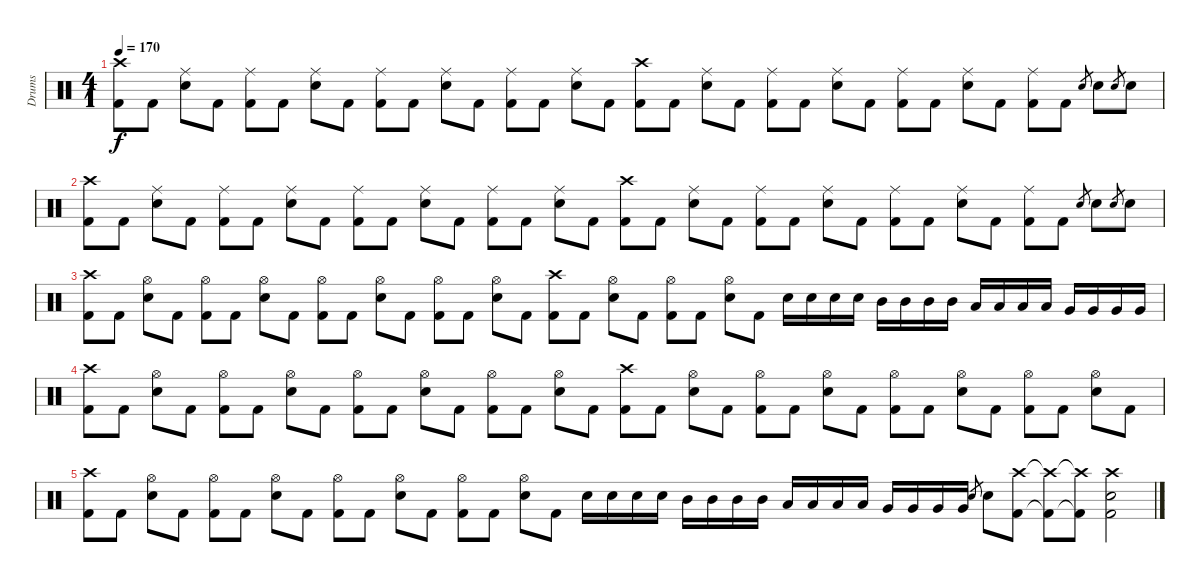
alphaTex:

\track ("Drums" "Drums") {instrument percussion}
\staff {score}
\articulation defaults
\ts (4 1)
\tempo 170
\clef neutral
\ks c
("Crash high (hit)" "Kick (hit) 2").8{dy f} "Kick (hit) 2".8 ("Ride (middle)" "Electric Snare (hit)").8 "Kick (hit) 2".8 ("Ride (middle)" "Kick (hit) 2").8 "Kick (hit) 2".8 ("Ride (middle)" "Electric Snare (hit)").8 "Kick (hit) 2".8 ("Ride (middle)" "Kick (hit) 2").8 "Kick (hit) 2".8 ("Ride (middle)" "Electric Snare (hit)").8 "Kick (hit) 2".8 ("Ride (middle)" "Kick (hit) 2").8 "Kick (hit) 2".8 ("Ride (middle)" "Electric Snare (hit)").8 "Kick (hit) 2".8 ("Crash high (hit)" "Kick (hit) 2").8 "Kick (hit) 2".8 ("Ride (middle)" "Electric Snare (hit)").8 "Kick (hit) 2".8 ("Ride (middle)" "Kick (hit) 2").8 "Kick (hit) 2".8 ("Ride (middle)" "Electric Snare (hit)").8 "Kick (hit) 2".8 ("Ride (middle)" "Kick (hit) 2").8 "Kick (hit) 2".8 ("Ride (middle)" "Electric Snare (hit)").8 "Kick (hit) 2".8 ("Ride (middle)" "Kick (hit) 2").8 "Kick (hit) 2".8 "Electric Snare (hit)".8{gr} "Electric Snare (hit)".8 "Electric Snare (hit)".8{gr} "Electric Snare (hit)".8 |
("Crash high (hit)" "Kick (hit) 2").8 "Kick (hit) 2".8 ("Ride (middle)" "Electric Snare (hit)").8 "Kick (hit) 2".8 ("Ride (middle)" "Kick (hit) 2").8 "Kick (hit) 2".8 ("Ride (middle)" "Electric Snare (hit)").8 "Kick (hit) 2".8 ("Ride (middle)" "Kick (hit) 2").8 "Kick (hit) 2".8 ("Ride (middle)" "Electric Snare (hit)").8 "Kick (hit) 2".8 ("Ride (middle)" "Kick (hit) 2").8 "Kick (hit) 2".8 ("Ride (middle)" "Electric Snare (hit)").8 "Kick (hit) 2".8 ("Crash high (hit)" "Kick (hit) 2").8 "Kick (hit) 2".8 ("Ride (middle)" "Electric Snare (hit)").8 "Kick (hit) 2".8 ("Ride (middle)" "Kick (hit) 2").8 "Kick (hit) 2".8 ("Ride (middle)" "Electric Snare (hit)").8 "Kick (hit) 2".8 ("Ride (middle)" "Kick (hit) 2").8 "Kick (hit) 2".8 ("Ride (middle)" "Electric Snare (hit)").8 "Kick (hit) 2".8 ("Ride (middle)" "Kick (hit) 2").8 "Kick (hit) 2".8 "Electric Snare (hit)".8{gr} "Electric Snare (hit)".8 "Electric Snare (hit)".8{gr} "Electric Snare (hit)".8 |
("Crash high (hit)" "Kick (hit) 2").8 "Kick (hit) 2".8 ("Hi-Hat (open)" "Electric Snare (hit)").8 "Kick (hit) 2".8 ("Hi-Hat (open)" "Kick (hit) 2").8 "Kick (hit) 2".8 ("Hi-Hat (open)" "Electric Snare (hit)").8 "Kick (hit) 2".8 ("Hi-Hat (open)" "Kick (hit) 2").8 "Kick (hit) 2".8 ("Hi-Hat (open)" "Electric Snare (hit)").8 "Kick (hit) 2".8 ("Hi-Hat (open)" "Kick (hit) 2").8 "Kick (hit) 2".8 ("Hi-Hat (open)" "Electric Snare (hit)").8 "Kick (hit) 2".8 ("Crash high (hit)" "Kick (hit) 2").8 "Kick (hit) 2".8 ("Hi-Hat (open)" "Electric Snare (hit)").8 "Kick (hit) 2".8 ("Hi-Hat (open)" "Kick (hit) 2").8 "Kick (hit) 2".8 ("Hi-Hat (open)" "Electric Snare (hit)").8 "Kick (hit) 2".8 "Electric Snare (hit)".16 "Electric Snare (hit)".16 "Electric Snare (hit)".16 "Electric Snare (hit)".16 "Mid Tom (hit)".16 "Mid Tom (hit)".16 "Mid Tom (hit)".16 "Mid Tom (hit)".16 "Low Tom (hit)".16 "Low Tom (hit)".16 "Low Tom (hit)".16 "Low Tom (hit)".16 "Very Low Tom (hit)".16 "Very Low Tom (hit)".16 "Very Low Tom (hit)".16 "Very Low Tom (hit)".16 |
("Crash high (hit)" "Kick (hit) 2").8 "Kick (hit) 2".8 ("Hi-Hat (open)" "Electric Snare (hit)").8 "Kick (hit) 2".8 ("Hi-Hat (open)" "Kick (hit) 2").8 "Kick (hit) 2".8 ("Hi-Hat (open)" "Electric Snare (hit)").8 "Kick (hit) 2".8 ("Hi-Hat (open)" "Kick (hit) 2").8 "Kick (hit) 2".8 ("Hi-Hat (open)" "Electric Snare (hit)").8 "Kick (hit) 2".8 ("Hi-Hat (open)" "Kick (hit) 2").8 "Kick (hit) 2".8 ("Hi-Hat (open)" "Electric Snare (hit)").8 "Kick (hit) 2".8 ("Crash high (hit)" "Kick (hit) 2").8 "Kick (hit) 2".8 ("Hi-Hat (open)" "Electric Snare (hit)").8 "Kick (hit) 2".8 ("Hi-Hat (open)" "Kick (hit) 2").8 "Kick (hit) 2".8 ("Hi-Hat (open)" "Electric Snare (hit)").8 "Kick (hit) 2".8 ("Hi-Hat (open)" "Kick (hit) 2").8 "Kick (hit) 2".8 ("Hi-Hat (open)" "Electric Snare (hit)").8 "Kick (hit) 2".8 ("Hi-Hat (open)" "Kick (hit) 2").8 "Kick (hit) 2".8 ("Hi-Hat (open)" "Electric Snare (hit)").8 "Kick (hit) 2".8 |
("Crash high (hit)" "Kick (hit) 2").8 "Kick (hit) 2".8 ("Hi-Hat (open)" "Electric Snare (hit)").8 "Kick (hit) 2".8 ("Hi-Hat (open)" "Kick (hit) 2").8 "Kick (hit) 2".8 ("Hi-Hat (open)" "Electric Snare (hit)").8 "Kick (hit) 2".8 ("Hi-Hat (open)" "Kick (hit) 2").8 "Kick (hit) 2".8 ("Hi-Hat (open)" "Electric Snare (hit)").8 "Kick (hit) 2".8 ("Hi-Hat (open)" "Kick (hit) 2").8 "Kick (hit) 2".8 ("Hi-Hat (open)" "Electric Snare (hit)").8 "Kick (hit) 2".8 "Electric Snare (hit)".16 "Electric Snare (hit)".16 "Electric Snare (hit)".16 "Electric Snare (hit)".16 "Mid Tom (hit)".16 "Mid Tom (hit)".16 "Mid Tom (hit)".16 "Mid Tom (hit)".16 "Low Tom (hit)".16 "Low Tom (hit)".16 "Low Tom (hit)".16 "Low Tom (hit)".16 "Very Low Tom (hit)".16 "Very Low Tom (hit)".16 "Very Low Tom (hit)".16 "Very Low Tom (hit)".16 "Electric Snare (hit)".8{gr} "Electric Snare (hit)".8 ("Crash high (hit)" "Kick (hit) 2").8 ("Crash high (hit)"{t} "Kick (hit) 2"{t}).8 ("Crash high (hit)"{t} "Kick (hit) 2"{t}).8 ("Crash high (hit)" "Electric Snare (hit)" "Kick (hit) 2").2
